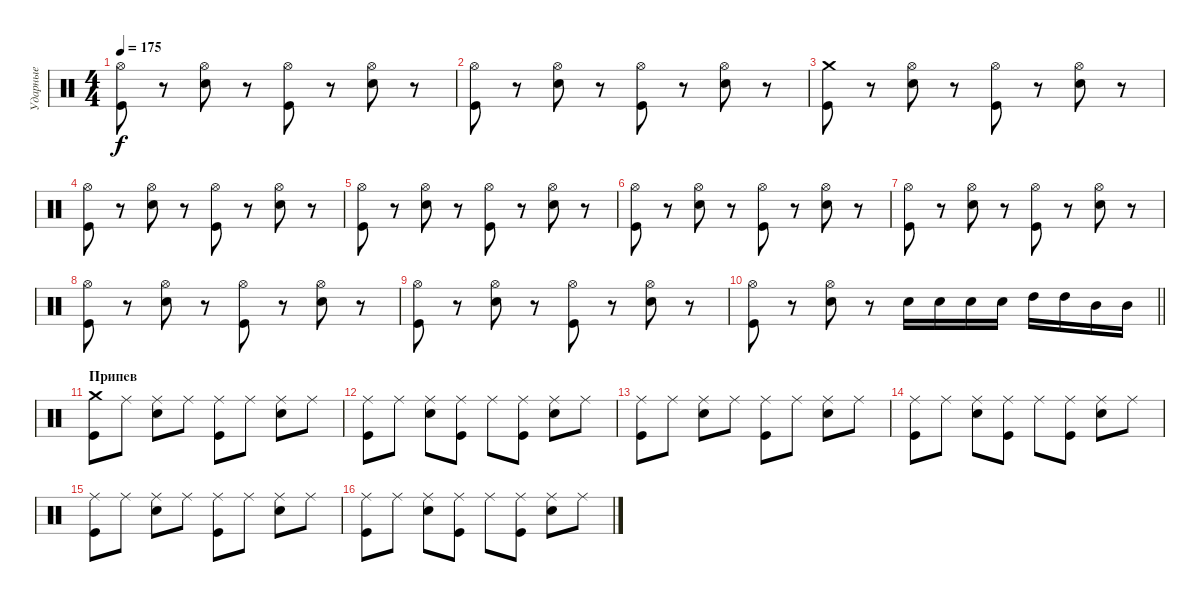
\track ("Ударные" "Ударные") {instrument percussion}
\staff {score}
\articulation defaults
\ts (4 4)
\tempo 175
\clef neutral
\ks c
("Hi-Hat (open)" "Kick (hit)").8{dy f} r.8 ("Hi-Hat (open)" "Electric Snare (hit)").8 r.8 ("Hi-Hat (open)" "Kick (hit)").8 r.8 ("Hi-Hat (open)" "Electric Snare (hit)").8 r.8 |
("Hi-Hat (open)" "Kick (hit)").8 r.8 ("Hi-Hat (open)" "Electric Snare (hit)").8 r.8 ("Hi-Hat (open)" "Kick (hit)").8 r.8 ("Hi-Hat (open)" "Electric Snare (hit)").8 r.8 |
("Crash medium (hit)" "Kick (hit)").8 r.8 ("Hi-Hat (open)" "Electric Snare (hit)").8 r.8 ("Hi-Hat (open)" "Kick (hit)").8 r.8 ("Hi-Hat (open)" "Electric Snare (hit)").8 r.8 |
("Hi-Hat (open)" "Kick (hit)").8 r.8 ("Hi-Hat (open)" "Electric Snare (hit)").8 r.8 ("Hi-Hat (open)" "Kick (hit)").8 r.8 ("Hi-Hat (open)" "Electric Snare (hit)").8 r.8 |
("Hi-Hat (open)" "Kick (hit)").8 r.8 ("Hi-Hat (open)" "Electric Snare (hit)").8 r.8 ("Hi-Hat (open)" "Kick (hit)").8 r.8 ("Hi-Hat (open)" "Electric Snare (hit)").8 r.8 |
("Hi-Hat (open)" "Kick (hit)").8 r.8 ("Hi-Hat (open)" "Electric Snare (hit)").8 r.8 ("Hi-Hat (open)" "Kick (hit)").8 r.8 ("Hi-Hat (open)" "Electric Snare (hit)").8 r.8 |
("Hi-Hat (open)" "Kick (hit)").8 r.8 ("Hi-Hat (open)" "Electric Snare (hit)").8 r.8 ("Hi-Hat (open)" "Kick (hit)").8 r.8 ("Hi-Hat (open)" "Electric Snare (hit)").8 r.8 |
("Hi-Hat (open)" "Kick (hit)").8 r.8 ("Hi-Hat (open)" "Electric Snare (hit)").8 r.8 ("Hi-Hat (open)" "Kick (hit)").8 r.8 ("Hi-Hat (open)" "Electric Snare (hit)").8 r.8 |
("Hi-Hat (open)" "Kick (hit)").8 r.8 ("Hi-Hat (open)" "Electric Snare (hit)").8 r.8 ("Hi-Hat (open)" "Kick (hit)").8 r.8 ("Hi-Hat (open)" "Electric Snare (hit)").8 r.8 |
\barLineRight lightlight
("Hi-Hat (open)" "Kick (hit)").8 r.8 ("Hi-Hat (open)" "Electric Snare (hit)").8 r.8 "Electric Snare (hit)".16 "Electric Snare (hit)".16 "Electric Snare (hit)".16 "Electric Snare (hit)".16 "High Tom (hit)".16 "High Tom (hit)".16 "Mid Tom (hit)".16 "Mid Tom (hit)".16 |
\section ("" "Припев")
("Crash medium (hit)" "Kick (hit)").8 "Ride (middle)".8 ("Ride (middle)" "Electric Snare (hit)").8 "Ride (middle)".8 ("Ride (middle)" "Kick (hit)").8 "Ride (middle)".8 ("Ride (middle)" "Electric Snare (hit)").8 "Ride (middle)".8 |
("Ride (middle)" "Kick (hit)").8 "Ride (middle)".8 ("Ride (middle)" "Electric Snare (hit)").8 ("Ride (middle)" "Kick (hit)").8 "Ride (middle)".8 ("Ride (middle)" "Kick (hit)").8 ("Ride (middle)" "Electric Snare (hit)").8 "Ride (middle)".8 |
("Ride (middle)" "Kick (hit)").8 "Ride (middle)".8 ("Ride (middle)" "Electric Snare (hit)").8 "Ride (middle)".8 ("Ride (middle)" "Kick (hit)").8 "Ride (middle)".8 ("Ride (middle)" "Electric Snare (hit)").8 "Ride (middle)".8 |
("Ride (middle)" "Kick (hit)").8 "Ride (middle)".8 ("Ride (middle)" "Electric Snare (hit)").8 ("Ride (middle)" "Kick (hit)").8 "Ride (middle)".8 ("Ride (middle)" "Kick (hit)").8 ("Ride (middle)" "Electric Snare (hit)").8 "Ride (middle)".8 |
("Ride (middle)" "Kick (hit)").8 "Ride (middle)".8 ("Ride (middle)" "Electric Snare (hit)").8 "Ride (middle)".8 ("Ride (middle)" "Kick (hit)").8 "Ride (middle)".8 ("Ride (middle)" "Electric Snare (hit)").8 "Ride (middle)".8 |
("Ride (middle)" "Kick (hit)").8 "Ride (middle)".8 ("Ride (middle)" "Electric Snare (hit)").8 ("Ride (middle)" "Kick (hit)").8 "Ride (middle)".8 ("Ride (middle)" "Kick (hit)").8 ("Ride (middle)" "Electric Snare (hit)").8 "Ride (middle)".8
